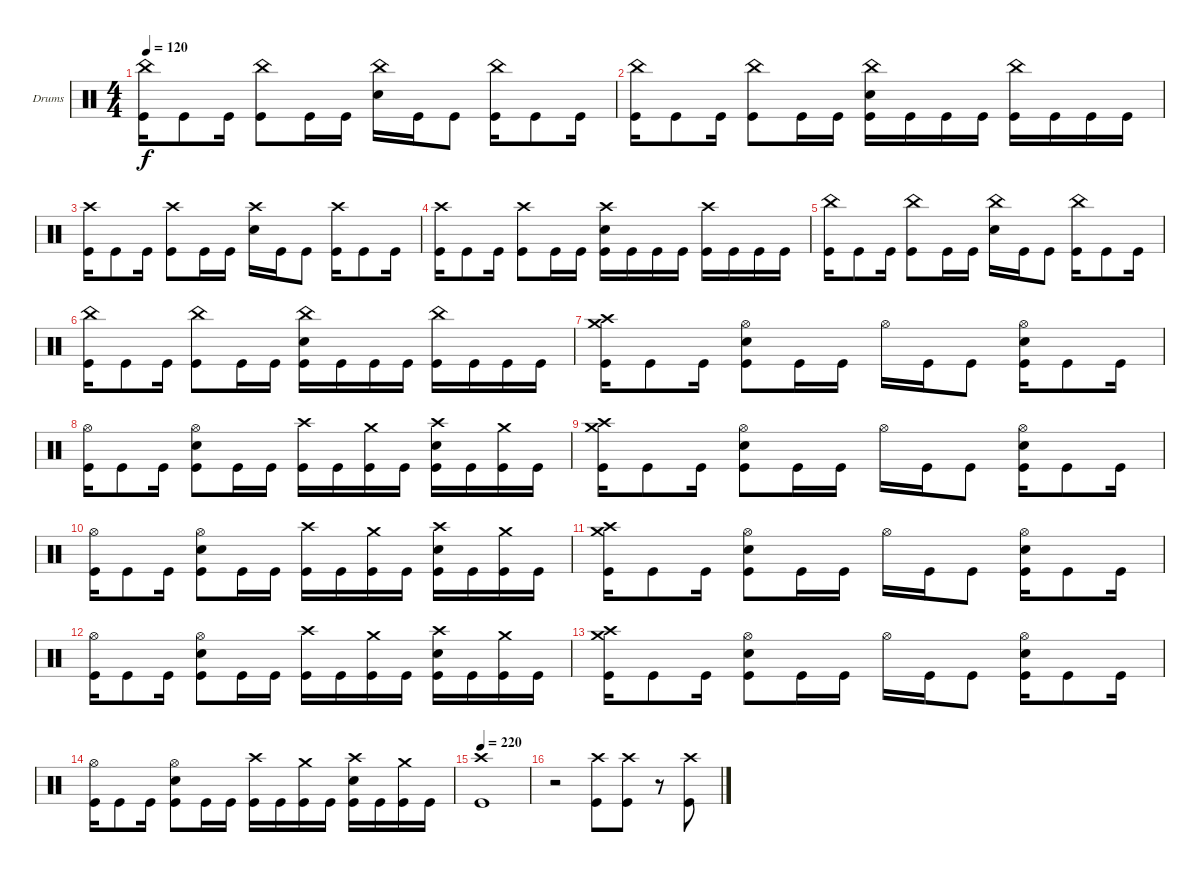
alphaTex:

\defaultSystemsLayout 4
\bracketExtendMode groupsimilarinstruments
\firstSystemTrackNameOrientation horizontal
\otherSystemsTrackNameOrientation horizontal
\track ("Drumkit" "Drums") {instrument percussion}
\staff {score}
\articulation defaults
\ts (4 4)
\tempo 120
\clef neutral
\scale
0.333333
\ks c
("China (hit)" "Kick (hit)").16{dy f} "Kick (hit)".8 "Kick (hit)".16 ("China (hit)" "Kick (hit)").8 "Kick (hit)".16 "Kick (hit)".16 ("China (hit)" "Snare (hit) 2").16 "Kick (hit)".16 "Kick (hit)".8 ("China (hit)" "Kick (hit)").16 "Kick (hit)".8 "Kick (hit)".16 |
\scale
0.333333 ("China (hit)" "Kick (hit)").16 "Kick (hit)".8 "Kick (hit)".16 ("China (hit)" "Kick (hit)").8 "Kick (hit)".16 "Kick (hit)".16 ("China (hit)" "Snare (hit) 2" "Kick (hit)").16 "Kick (hit)".16 "Kick (hit)".16 "Kick (hit)".16 ("China (hit)" "Kick (hit)").16 "Kick (hit)".16 "Kick (hit)".16 "Kick (hit)".16 |
\scale
0.333333 ("Crash high (hit)" "Kick (hit)").16 "Kick (hit)".8 "Kick (hit)".16 ("Crash high (hit)" "Kick (hit)").8 "Kick (hit)".16 "Kick (hit)".16 ("Crash high (hit)" "Snare (hit) 2").16 "Kick (hit)".16 "Kick (hit)".8 ("Crash high (hit)" "Kick (hit)").16 "Kick (hit)".8 "Kick (hit)".16 |
\scale
0.333333 ("Crash high (hit)" "Kick (hit)").16 "Kick (hit)".8 "Kick (hit)".16 ("Crash high (hit)" "Kick (hit)").8 "Kick (hit)".16 "Kick (hit)".16 ("Crash high (hit)" "Snare (hit) 2" "Kick (hit)").16 "Kick (hit)".16 "Kick (hit)".16 "Kick (hit)".16 ("Crash high (hit)" "Kick (hit)").16 "Kick (hit)".16 "Kick (hit)".16 "Kick (hit)".16 |
\scale
0.333333 ("China (hit)" "Kick (hit)").16 "Kick (hit)".8 "Kick (hit)".16 ("China (hit)" "Kick (hit)").8 "Kick (hit)".16 "Kick (hit)".16 ("China (hit)" "Snare (hit) 2").16 "Kick (hit)".16 "Kick (hit)".8 ("China (hit)" "Kick (hit)").16 "Kick (hit)".8 "Kick (hit)".16 |
\scale
0.333333 ("China (hit)" "Kick (hit)").16 "Kick (hit)".8 "Kick (hit)".16 ("China (hit)" "Kick (hit)").8 "Kick (hit)".16 "Kick (hit)".16 ("China (hit)" "Snare (hit) 2" "Kick (hit)").16 "Kick (hit)".16 "Kick (hit)".16 "Kick (hit)".16 ("China (hit)" "Kick (hit)").16 "Kick (hit)".16 "Kick (hit)".16 "Kick (hit)".16 |
\scale
0.333333 ("Crash medium (hit)" "Crash high (hit)" "Kick (hit)").16 "Kick (hit)".8 "Kick (hit)".16 ("Hi-Hat (open)" "Snare (hit) 2" "Kick (hit)").8 "Kick (hit)".16 "Kick (hit)".16 "Hi-Hat (open)".16 "Kick (hit)".16 "Kick (hit)".8 ("Hi-Hat (open)" "Snare (hit) 2" "Kick (hit)").16 "Kick (hit)".8 "Kick (hit)".16 |
\scale
0.333333 ("Hi-Hat (open)" "Kick (hit)").16 "Kick (hit)".8 "Kick (hit)".16 ("Hi-Hat (open)" "Snare (hit) 2" "Kick (hit)").8 "Kick (hit)".16 "Kick (hit)".16 ("Crash high (hit)" "Kick (hit)").16 "Kick (hit)".16 ("Crash medium (hit)" "Kick (hit)").16 "Kick (hit)".16 ("Crash high (hit)" "Snare (hit) 2" "Kick (hit)").16 "Kick (hit)".16 ("Crash medium (hit)" "Kick (hit)").16 "Kick (hit)".16 |
\scale
0.333333 ("Crash medium (hit)" "Crash high (hit)" "Kick (hit)").16 "Kick (hit)".8 "Kick (hit)".16 ("Hi-Hat (open)" "Snare (hit) 2" "Kick (hit)").8 "Kick (hit)".16 "Kick (hit)".16 "Hi-Hat (open)".16 "Kick (hit)".16 "Kick (hit)".8 ("Hi-Hat (open)" "Snare (hit) 2" "Kick (hit)").16 "Kick (hit)".8 "Kick (hit)".16 |
\scale
0.333333 ("Hi-Hat (open)" "Kick (hit)").16 "Kick (hit)".8 "Kick (hit)".16 ("Hi-Hat (open)" "Snare (hit) 2" "Kick (hit)").8 "Kick (hit)".16 "Kick (hit)".16 ("Crash high (hit)" "Kick (hit)").16 "Kick (hit)".16 ("Crash medium (hit)" "Kick (hit)").16 "Kick (hit)".16 ("Crash high (hit)" "Snare (hit) 2" "Kick (hit)").16 "Kick (hit)".16 ("Crash medium (hit)" "Kick (hit)").16 "Kick (hit)".16 |
\scale
0.333333 ("Crash medium (hit)" "Crash high (hit)" "Kick (hit)").16 "Kick (hit)".8 "Kick (hit)".16 ("Hi-Hat (open)" "Snare (hit) 2" "Kick (hit)").8 "Kick (hit)".16 "Kick (hit)".16 "Hi-Hat (open)".16 "Kick (hit)".16 "Kick (hit)".8 ("Hi-Hat (open)" "Snare (hit) 2" "Kick (hit)").16 "Kick (hit)".8 "Kick (hit)".16 |
\scale
0.333333 ("Hi-Hat (open)" "Kick (hit)").16 "Kick (hit)".8 "Kick (hit)".16 ("Hi-Hat (open)" "Snare (hit) 2" "Kick (hit)").8 "Kick (hit)".16 "Kick (hit)".16 ("Crash high (hit)" "Kick (hit)").16 "Kick (hit)".16 ("Crash medium (hit)" "Kick (hit)").16 "Kick (hit)".16 ("Crash high (hit)" "Snare (hit) 2" "Kick (hit)").16 "Kick (hit)".16 ("Crash medium (hit)" "Kick (hit)").16 "Kick (hit)".16 |
\scale
0.333333 ("Crash medium (hit)" "Crash high (hit)" "Kick (hit)").16 "Kick (hit)".8 "Kick (hit)".16 ("Hi-Hat (open)" "Snare (hit) 2" "Kick (hit)").8 "Kick (hit)".16 "Kick (hit)".16 "Hi-Hat (open)".16 "Kick (hit)".16 "Kick (hit)".8 ("Hi-Hat (open)" "Snare (hit) 2" "Kick (hit)").16 "Kick (hit)".8 "Kick (hit)".16 |
\scale
0.333333 ("Hi-Hat (open)" "Kick (hit)").16 "Kick (hit)".8 "Kick (hit)".16 ("Hi-Hat (open)" "Snare (hit) 2" "Kick (hit)").8 "Kick (hit)".16 "Kick (hit)".16 ("Crash high (hit)" "Kick (hit)").16 "Kick (hit)".16 ("Crash medium (hit)" "Kick (hit)").16 "Kick (hit)".16 ("Crash high (hit)" "Snare (hit) 2" "Kick (hit)").16 "Kick (hit)".16 ("Crash medium (hit)" "Kick (hit)").16 "Kick (hit)".16 |
\tempo 220
\scale
0.333333 ("Crash high (hit)" "Kick (hit)").1 |
\scale
0.333333 r.2 ("Crash high (hit)" "Kick (hit)").8 ("Crash high (hit)" "Kick (hit)").8 r.8 ("Crash high (hit)" "Kick (hit)").8
